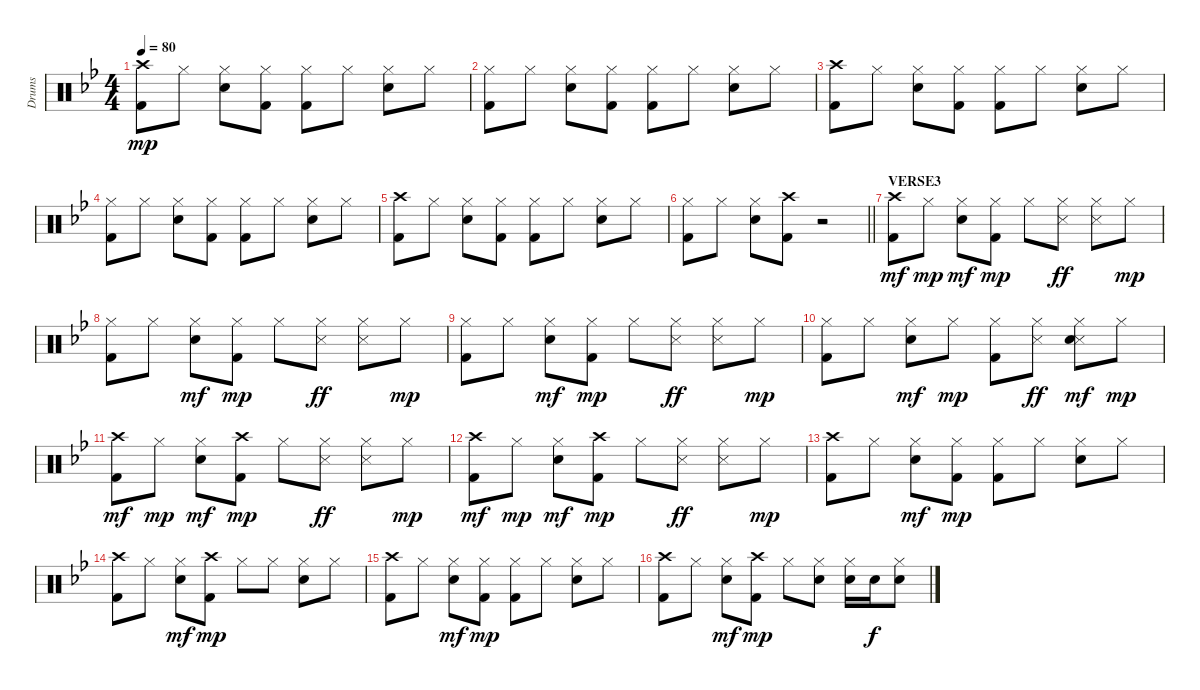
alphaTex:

\track ("Drums" "Drums") {instrument percussion}
\staff {score}
\articulation defaults
\ts (4 4)
\tempo 80
\clef neutral
\ks bb
("Crash high (hit)" "Kick (hit) 2").8{dy mp} "Hi-Hat (closed)".8 ("Hi-Hat (closed)" "Snare (hit) 2").8 ("Hi-Hat (closed)" "Kick (hit) 2").8 ("Hi-Hat (closed)" "Kick (hit) 2").8 "Hi-Hat (closed)".8 ("Hi-Hat (closed)" "Snare (hit) 2").8 "Hi-Hat (closed)".8 |
("Hi-Hat (closed)" "Kick (hit) 2").8 "Hi-Hat (closed)".8 ("Hi-Hat (closed)" "Snare (hit) 2").8 ("Hi-Hat (closed)" "Kick (hit) 2").8 ("Hi-Hat (closed)" "Kick (hit) 2").8 "Hi-Hat (closed)".8 ("Hi-Hat (closed)" "Snare (hit) 2").8 "Hi-Hat (closed)".8 |
("Crash high (hit)" "Kick (hit) 2").8 "Hi-Hat (closed)".8 ("Hi-Hat (closed)" "Snare (hit) 2").8 ("Hi-Hat (closed)" "Kick (hit) 2").8 ("Hi-Hat (closed)" "Kick (hit) 2").8 "Hi-Hat (closed)".8 ("Hi-Hat (closed)" "Snare (hit) 2").8 "Hi-Hat (closed)".8 |
("Hi-Hat (closed)" "Kick (hit) 2").8 "Hi-Hat (closed)".8 ("Hi-Hat (closed)" "Snare (hit) 2").8 ("Hi-Hat (closed)" "Kick (hit) 2").8 ("Hi-Hat (closed)" "Kick (hit) 2").8 "Hi-Hat (closed)".8 ("Hi-Hat (closed)" "Snare (hit) 2").8 "Hi-Hat (closed)".8 |
("Crash high (hit)" "Kick (hit) 2").8 "Hi-Hat (closed)".8 ("Hi-Hat (closed)" "Snare (hit) 2").8 ("Hi-Hat (closed)" "Kick (hit) 2").8 ("Hi-Hat (closed)" "Kick (hit) 2").8 "Hi-Hat (closed)".8 ("Hi-Hat (closed)" "Snare (hit) 2").8 "Hi-Hat (closed)".8 |
\barLineRight lightlight
("Hi-Hat (closed)" "Kick (hit) 2").8 "Hi-Hat (closed)".8 ("Hi-Hat (closed)" "Snare (hit) 2").8 ("Crash high (hit)" "Kick (hit) 2").8 r.2 |
\section ("" "VERSE3")
("Crash high (hit)" "Kick (hit) 2").8{dy mf} "Hi-Hat (closed)".8{dy mp} ("Hi-Hat (closed)" "Snare (hit) 2").8{dy mf} ("Hi-Hat (closed)" "Kick (hit) 2").8{dy mp} "Hi-Hat (closed)".8 ("Hi-Hat (closed)" "Snare (side stick) 3").8{dy ff} ("Hi-Hat (closed)" "Snare (side stick) 3").8 "Hi-Hat (closed)".8{dy mp} |
("Hi-Hat (closed)" "Kick (hit) 2").8 "Hi-Hat (closed)".8 ("Hi-Hat (closed)" "Snare (hit) 2").8{dy mf} ("Hi-Hat (closed)" "Kick (hit) 2").8{dy mp} "Hi-Hat (closed)".8 ("Hi-Hat (closed)" "Snare (side stick) 3").8{dy ff} ("Hi-Hat (closed)" "Snare (side stick) 3").8 "Hi-Hat (closed)".8{dy mp} |
("Hi-Hat (closed)" "Kick (hit) 2").8 "Hi-Hat (closed)".8 ("Hi-Hat (closed)" "Snare (hit) 2").8{dy mf} ("Hi-Hat (closed)" "Kick (hit) 2").8{dy mp} "Hi-Hat (closed)".8 ("Hi-Hat (closed)" "Snare (side stick) 3").8{dy ff} ("Hi-Hat (closed)" "Snare (side stick) 3").8 "Hi-Hat (closed)".8{dy mp} |
("Hi-Hat (closed)" "Kick (hit) 2").8 "Hi-Hat (closed)".8 ("Hi-Hat (closed)" "Snare (hit) 2").8{dy mf} "Hi-Hat (closed)".8{dy mp} ("Hi-Hat (closed)" "Kick (hit) 2").8 ("Hi-Hat (closed)" "Snare (side stick) 3").8{dy ff} ("Hi-Hat (closed)" "Snare (side stick) 3" "Snare (hit) 2").8{dy mf} "Hi-Hat (closed)".8{dy mp} |
("Crash high (hit)" "Kick (hit) 2").8{dy mf} "Hi-Hat (closed)".8{dy mp} ("Hi-Hat (closed)" "Snare (hit) 2").8{dy mf} ("Crash high (hit)" "Kick (hit) 2").8{dy mp} "Hi-Hat (closed)".8 ("Hi-Hat (closed)" "Snare (side stick) 3").8{dy ff} ("Hi-Hat (closed)" "Snare (side stick) 3").8 "Hi-Hat (closed)".8{dy mp} |
("Crash high (hit)" "Kick (hit) 2").8{dy mf} "Hi-Hat (closed)".8{dy mp} ("Hi-Hat (closed)" "Snare (hit) 2").8{dy mf} ("Crash high (hit)" "Kick (hit) 2").8{dy mp} "Hi-Hat (closed)".8 ("Hi-Hat (closed)" "Snare (side stick) 3").8{dy ff} ("Hi-Hat (closed)" "Snare (side stick) 3").8 "Hi-Hat (closed)".8{dy mp} |
("Crash high (hit)" "Kick (hit) 2").8 "Hi-Hat (closed)".8 ("Hi-Hat (closed)" "Snare (hit) 2").8{dy mf} ("Hi-Hat (closed)" "Kick (hit) 2").8{dy mp} ("Hi-Hat (closed)" "Kick (hit) 2").8 "Hi-Hat (closed)".8 ("Hi-Hat (closed)" "Snare (hit) 2").8 "Hi-Hat (closed)".8 |
("Crash high (hit)" "Kick (hit) 2").8 "Hi-Hat (closed)".8 ("Hi-Hat (closed)" "Snare (hit) 2").8{dy mf} ("Crash high (hit)" "Kick (hit) 2").8{dy mp} "Hi-Hat (closed)".8 "Hi-Hat (closed)".8 ("Hi-Hat (closed)" "Snare (hit) 2").8 "Hi-Hat (closed)".8 |
("Crash high (hit)" "Kick (hit) 2").8 "Hi-Hat (closed)".8 ("Hi-Hat (closed)" "Snare (hit) 2").8{dy mf} ("Hi-Hat (closed)" "Kick (hit) 2").8{dy mp} ("Hi-Hat (closed)" "Kick (hit) 2").8 "Hi-Hat (closed)".8 ("Hi-Hat (closed)" "Snare (hit) 2").8 "Hi-Hat (closed)".8 |
("Crash high (hit)" "Kick (hit) 2").8 "Hi-Hat (closed)".8 ("Hi-Hat (closed)" "Snare (hit) 2").8{dy mf} ("Crash high (hit)" "Kick (hit) 2").8{dy mp} "Hi-Hat (closed)".8 ("Hi-Hat (closed)" "Snare (hit) 2").8 ("Hi-Hat (closed)" "Snare (hit) 2").16 "Snare (hit) 2".16{dy f} ("Hi-Hat (closed)" "Snare (hit) 2").8
